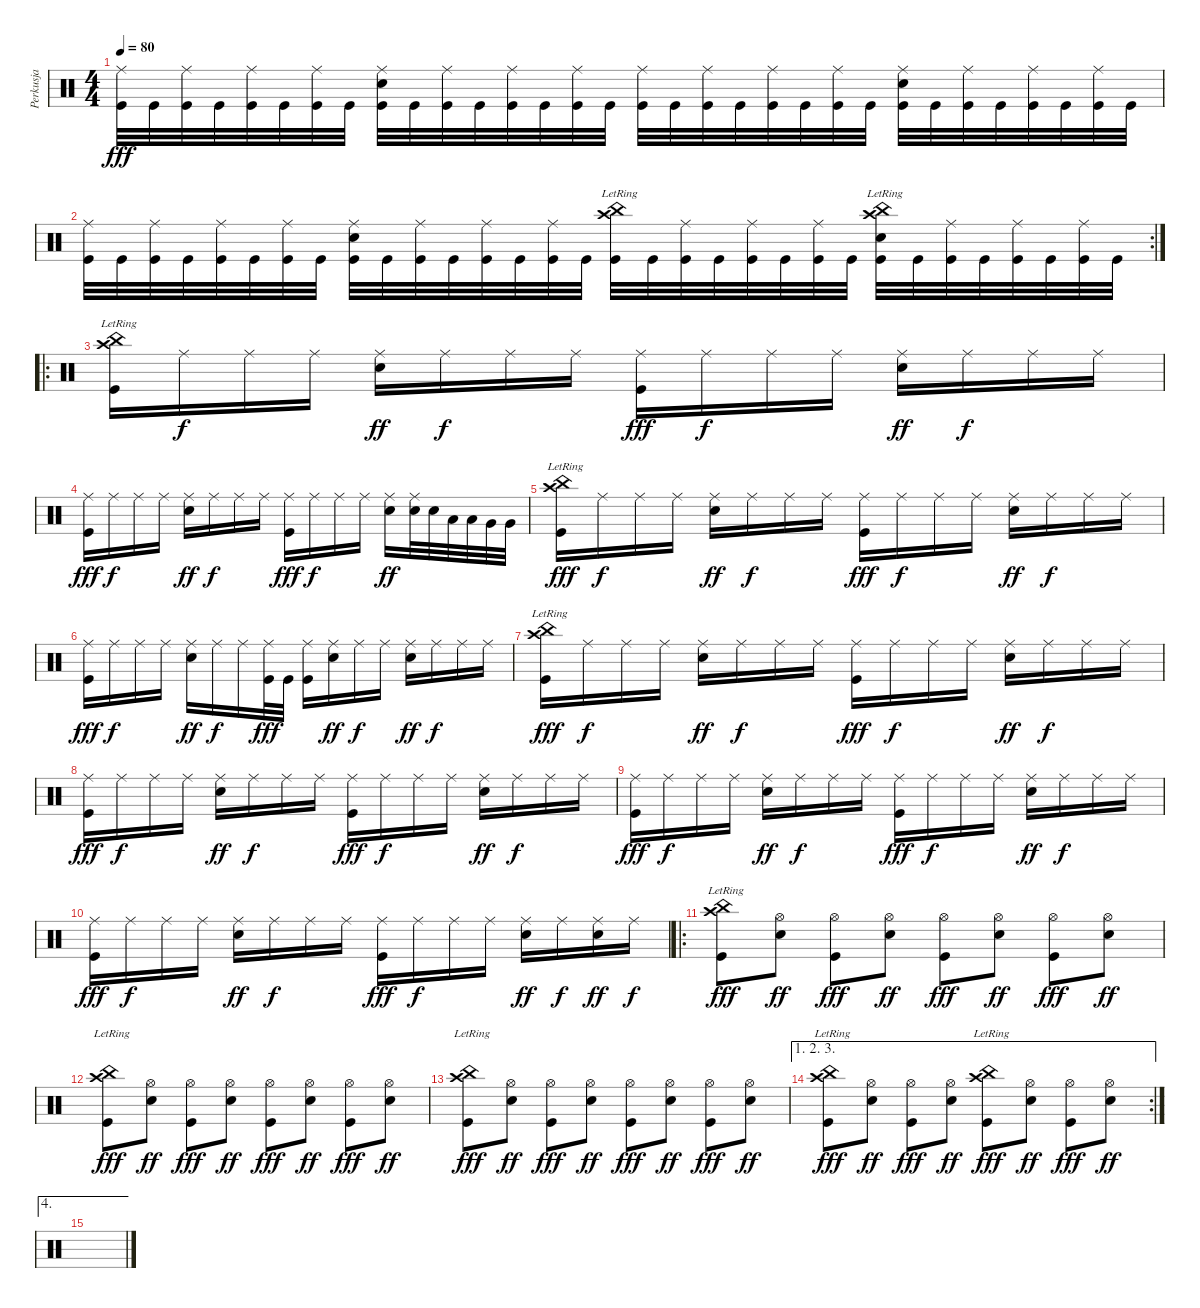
\track ("Perkusja" "Perkusja") {instrument percussion}
\staff {score}
\articulation defaults
\ts (4 4)
\tempo 80
\clef neutral
\ks c
("Ride (middle)" "Kick (hit)").32{dy fff} "Kick (hit)".32 ("Ride (middle)" "Kick (hit)").32 "Kick (hit)".32 ("Ride (middle)" "Kick (hit)").32 "Kick (hit)".32 ("Ride (middle)" "Kick (hit)").32 "Kick (hit)".32 ("Ride (middle)" "Electric Snare (hit)" "Kick (hit)").32 "Kick (hit)".32 ("Ride (middle)" "Kick (hit)").32 "Kick (hit)".32 ("Ride (middle)" "Kick (hit)").32 "Kick (hit)".32 ("Ride (middle)" "Kick (hit)").32 "Kick (hit)".32 ("Ride (middle)" "Kick (hit)").32 "Kick (hit)".32 ("Ride (middle)" "Kick (hit)").32 "Kick (hit)".32 ("Ride (middle)" "Kick (hit)").32 "Kick (hit)".32 ("Ride (middle)" "Kick (hit)").32 "Kick (hit)".32 ("Ride (middle)" "Electric Snare (hit)" "Kick (hit)").32 "Kick (hit)".32 ("Ride (middle)" "Kick (hit)").32 "Kick (hit)".32 ("Ride (middle)" "Kick (hit)").32 "Kick (hit)".32 ("Ride (middle)" "Kick (hit)").32 "Kick (hit)".32 |
\rc 2
("Ride (middle)" "Kick (hit)").32 "Kick (hit)".32 ("Ride (middle)" "Kick (hit)").32 "Kick (hit)".32 ("Ride (middle)" "Kick (hit)").32 "Kick (hit)".32 ("Ride (middle)" "Kick (hit)").32 "Kick (hit)".32 ("Ride (middle)" "Electric Snare (hit)" "Kick (hit)").32 "Kick (hit)".32 ("Ride (middle)" "Kick (hit)").32 "Kick (hit)".32 ("Ride (middle)" "Kick (hit)").32 "Kick (hit)".32 ("Ride (middle)" "Kick (hit)").32 "Kick (hit)".32 ("China (hit)"{lr} "Crash high (hit)"{lr} "Kick (hit)").32 "Kick (hit)".32 ("Ride (middle)" "Kick (hit)").32 "Kick (hit)".32 ("Ride (middle)" "Kick (hit)").32 "Kick (hit)".32 ("Ride (middle)" "Kick (hit)").32 "Kick (hit)".32 ("China (hit)"{lr} "Crash high (hit)"{lr} "Electric Snare (hit)" "Kick (hit)").32 "Kick (hit)".32 ("Ride (middle)" "Kick (hit)").32 "Kick (hit)".32 ("Ride (middle)" "Kick (hit)").32 "Kick (hit)".32 ("Ride (middle)" "Kick (hit)").32 "Kick (hit)".32 |
\ro
("China (hit)"{lr} "Crash high (hit)"{lr} "Kick (hit)").16 "Ride (middle)".16{dy f} "Ride (middle)".16 "Ride (middle)".16 ("Ride (middle)" "Electric Snare (hit)").16{dy ff} "Ride (middle)".16{dy f} "Ride (middle)".16 "Ride (middle)".16 ("Ride (middle)" "Kick (hit)").16{dy fff} "Ride (middle)".16{dy f} "Ride (middle)".16 "Ride (middle)".16 ("Ride (middle)" "Electric Snare (hit)").16{dy ff} "Ride (middle)".16{dy f} "Ride (middle)".16 "Ride (middle)".16 |
("Ride (middle)" "Kick (hit)").16{dy fff} "Ride (middle)".16{dy f} "Ride (middle)".16 "Ride (middle)".16 ("Ride (middle)" "Electric Snare (hit)").16{dy ff} "Ride (middle)".16{dy f} "Ride (middle)".16 "Ride (middle)".16 ("Ride (middle)" "Kick (hit)").16{dy fff} "Ride (middle)".16{dy f} "Ride (middle)".16 "Ride (middle)".16 ("Ride (middle)" "Electric Snare (hit)").16{dy ff} ("Ride (middle)" "Electric Snare (hit)").32 "Electric Snare (hit)".32 "Low Floor Tom (hit)".32 "Low Floor Tom (hit)".32 "Very Low Tom (hit)".32 "Very Low Tom (hit)".32 |
("China (hit)"{lr} "Crash high (hit)"{lr} "Kick (hit)").16{dy fff} "Ride (middle)".16{dy f} "Ride (middle)".16 "Ride (middle)".16 ("Ride (middle)" "Electric Snare (hit)").16{dy ff} "Ride (middle)".16{dy f} "Ride (middle)".16 "Ride (middle)".16 ("Ride (middle)" "Kick (hit)").16{dy fff} "Ride (middle)".16{dy f} "Ride (middle)".16 "Ride (middle)".16 ("Ride (middle)" "Electric Snare (hit)").16{dy ff} "Ride (middle)".16{dy f} "Ride (middle)".16 "Ride (middle)".16 |
("Ride (middle)" "Kick (hit)").16{dy fff} "Ride (middle)".16{dy f} "Ride (middle)".16 "Ride (middle)".16 ("Ride (middle)" "Electric Snare (hit)").16{dy ff} "Ride (middle)".16{dy f} "Ride (middle)".16 ("Ride (middle)" "Kick (hit)").32{dy fff} "Kick (hit)".32 ("Ride (middle)" "Kick (hit)").16 ("Ride (middle)" "Electric Snare (hit)").16{dy ff} "Ride (middle)".16{dy f} "Ride (middle)".16 ("Ride (middle)" "Electric Snare (hit)").16{dy ff} "Ride (middle)".16{dy f} "Ride (middle)".16 "Ride (middle)".16 |
("China (hit)"{lr} "Crash high (hit)"{lr} "Kick (hit)").16{dy fff} "Ride (middle)".16{dy f} "Ride (middle)".16 "Ride (middle)".16 ("Ride (middle)" "Electric Snare (hit)").16{dy ff} "Ride (middle)".16{dy f} "Ride (middle)".16 "Ride (middle)".16 ("Ride (middle)" "Kick (hit)").16{dy fff} "Ride (middle)".16{dy f} "Ride (middle)".16 "Ride (middle)".16 ("Ride (middle)" "Electric Snare (hit)").16{dy ff} "Ride (middle)".16{dy f} "Ride (middle)".16 "Ride (middle)".16 |
("Ride (middle)" "Kick (hit)").16{dy fff} "Ride (middle)".16{dy f} "Ride (middle)".16 "Ride (middle)".16 ("Ride (middle)" "Electric Snare (hit)").16{dy ff} "Ride (middle)".16{dy f} "Ride (middle)".16 "Ride (middle)".16 ("Ride (middle)" "Kick (hit)").16{dy fff} "Ride (middle)".16{dy f} "Ride (middle)".16 "Ride (middle)".16 ("Ride (middle)" "Electric Snare (hit)").16{dy ff} "Ride (middle)".16{dy f} "Ride (middle)".16 "Ride (middle)".16 |
("Ride (middle)" "Kick (hit)").16{dy fff} "Ride (middle)".16{dy f} "Ride (middle)".16 "Ride (middle)".16 ("Ride (middle)" "Electric Snare (hit)").16{dy ff} "Ride (middle)".16{dy f} "Ride (middle)".16 "Ride (middle)".16 ("Ride (middle)" "Kick (hit)").16{dy fff} "Ride (middle)".16{dy f} "Ride (middle)".16 "Ride (middle)".16 ("Ride (middle)" "Electric Snare (hit)").16{dy ff} "Ride (middle)".16{dy f} "Ride (middle)".16 "Ride (middle)".16 |
("Ride (middle)" "Kick (hit)").16{dy fff} "Ride (middle)".16{dy f} "Ride (middle)".16 "Ride (middle)".16 ("Ride (middle)" "Electric Snare (hit)").16{dy ff} "Ride (middle)".16{dy f} "Ride (middle)".16 "Ride (middle)".16 ("Ride (middle)" "Kick (hit)").16{dy fff} "Ride (middle)".16{dy f} "Ride (middle)".16 "Ride (middle)".16 ("Ride (middle)" "Electric Snare (hit)").16{dy ff} "Ride (middle)".16{dy f} ("Ride (middle)" "Electric Snare (hit)").16{dy ff} "Ride (middle)".16{dy f} |
\ro
("China (hit)"{lr} "Crash high (hit)"{lr} "Kick (hit)").8{dy fff} ("Hi-Hat (open)" "Electric Snare (hit)").8{dy ff} ("Hi-Hat (open)" "Kick (hit)").8{dy fff} ("Hi-Hat (open)" "Electric Snare (hit)").8{dy ff} ("Hi-Hat (open)" "Kick (hit)").8{dy fff} ("Hi-Hat (open)" "Electric Snare (hit)").8{dy ff} ("Hi-Hat (open)" "Kick (hit)").8{dy fff} ("Hi-Hat (open)" "Electric Snare (hit)").8{dy ff} |
("China (hit)"{lr} "Crash high (hit)"{lr} "Kick (hit)").8{dy fff} ("Hi-Hat (open)" "Electric Snare (hit)").8{dy ff} ("Hi-Hat (open)" "Kick (hit)").8{dy fff} ("Hi-Hat (open)" "Electric Snare (hit)").8{dy ff} ("Hi-Hat (open)" "Kick (hit)").8{dy fff} ("Hi-Hat (open)" "Electric Snare (hit)").8{dy ff} ("Hi-Hat (open)" "Kick (hit)").8{dy fff} ("Hi-Hat (open)" "Electric Snare (hit)").8{dy ff} |
("China (hit)"{lr} "Crash high (hit)"{lr} "Kick (hit)").8{dy fff} ("Hi-Hat (open)" "Electric Snare (hit)").8{dy ff} ("Hi-Hat (open)" "Kick (hit)").8{dy fff} ("Hi-Hat (open)" "Electric Snare (hit)").8{dy ff} ("Hi-Hat (open)" "Kick (hit)").8{dy fff} ("Hi-Hat (open)" "Electric Snare (hit)").8{dy ff} ("Hi-Hat (open)" "Kick (hit)").8{dy fff} ("Hi-Hat (open)" "Electric Snare (hit)").8{dy ff} |
\ae (1 2 3)
\rc 2
("China (hit)"{lr} "Crash high (hit)"{lr} "Kick (hit)").8{dy fff} ("Hi-Hat (open)" "Electric Snare (hit)").8{dy ff} ("Hi-Hat (open)" "Kick (hit)").8{dy fff} ("Hi-Hat (open)" "Electric Snare (hit)").8{dy ff} ("China (hit)"{lr} "Crash high (hit)"{lr} "Kick (hit)").8{dy fff} ("Hi-Hat (open)" "Electric Snare (hit)").8{dy ff} ("Hi-Hat (open)" "Kick (hit)").8{dy fff} ("Hi-Hat (open)" "Electric Snare (hit)").8{dy ff} |
\ae 4
